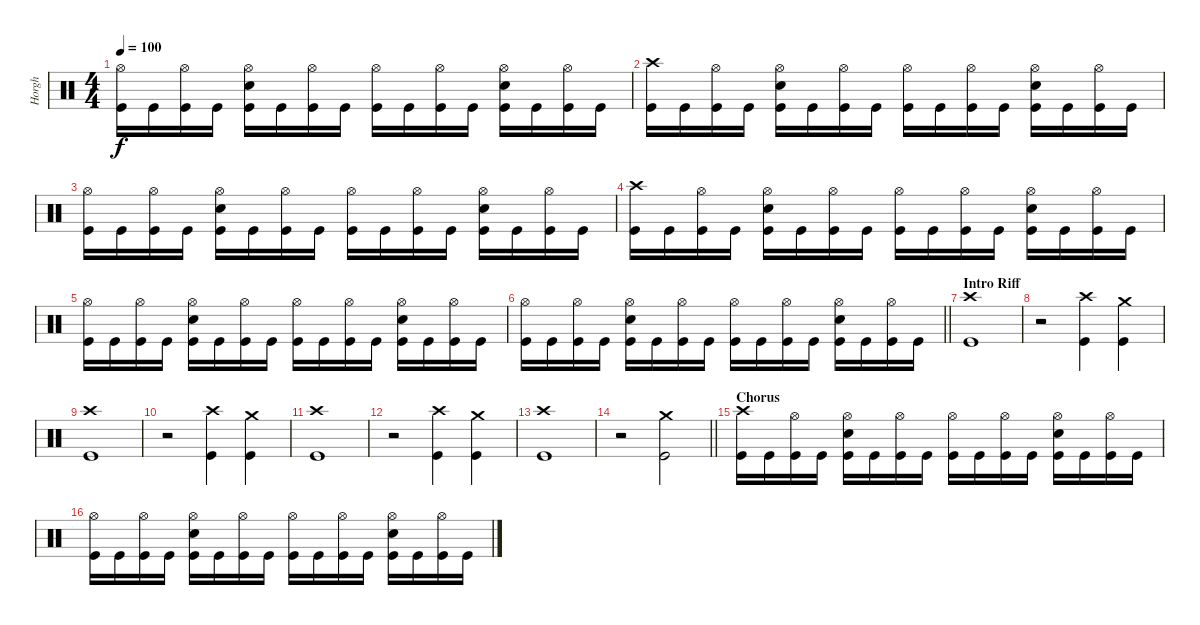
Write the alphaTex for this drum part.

\track ("Horgh" "Horgh") {instrument percussion}
\staff {score}
\articulation defaults
\ts (4 4)
\tempo 100
\clef neutral
\ks c
("Hi-Hat (open)" "Kick (hit)").16{dy f} "Kick (hit)".16 ("Hi-Hat (open)" "Kick (hit)").16 "Kick (hit)".16 ("Hi-Hat (open)" "Electric Snare (hit)" "Kick (hit)").16 "Kick (hit)".16 ("Hi-Hat (open)" "Kick (hit)").16 "Kick (hit)".16 ("Hi-Hat (open)" "Kick (hit)").16 "Kick (hit)".16 ("Hi-Hat (open)" "Kick (hit)").16 "Kick (hit)".16 ("Hi-Hat (open)" "Electric Snare (hit)" "Kick (hit)").16 "Kick (hit)".16 ("Hi-Hat (open)" "Kick (hit)").16 "Kick (hit)".16 |
("Crash high (hit)" "Kick (hit)").16 "Kick (hit)".16 ("Hi-Hat (open)" "Kick (hit)").16 "Kick (hit)".16 ("Hi-Hat (open)" "Electric Snare (hit)" "Kick (hit)").16 "Kick (hit)".16 ("Hi-Hat (open)" "Kick (hit)").16 "Kick (hit)".16 ("Hi-Hat (open)" "Kick (hit)").16 "Kick (hit)".16 ("Hi-Hat (open)" "Kick (hit)").16 "Kick (hit)".16 ("Hi-Hat (open)" "Electric Snare (hit)" "Kick (hit)").16 "Kick (hit)".16 ("Hi-Hat (open)" "Kick (hit)").16 "Kick (hit)".16 |
("Hi-Hat (open)" "Kick (hit)").16 "Kick (hit)".16 ("Hi-Hat (open)" "Kick (hit)").16 "Kick (hit)".16 ("Hi-Hat (open)" "Electric Snare (hit)" "Kick (hit)").16 "Kick (hit)".16 ("Hi-Hat (open)" "Kick (hit)").16 "Kick (hit)".16 ("Hi-Hat (open)" "Kick (hit)").16 "Kick (hit)".16 ("Hi-Hat (open)" "Kick (hit)").16 "Kick (hit)".16 ("Hi-Hat (open)" "Electric Snare (hit)" "Kick (hit)").16 "Kick (hit)".16 ("Hi-Hat (open)" "Kick (hit)").16 "Kick (hit)".16 |
("Crash high (hit)" "Kick (hit)").16 "Kick (hit)".16 ("Hi-Hat (open)" "Kick (hit)").16 "Kick (hit)".16 ("Hi-Hat (open)" "Electric Snare (hit)" "Kick (hit)").16 "Kick (hit)".16 ("Hi-Hat (open)" "Kick (hit)").16 "Kick (hit)".16 ("Hi-Hat (open)" "Kick (hit)").16 "Kick (hit)".16 ("Hi-Hat (open)" "Kick (hit)").16 "Kick (hit)".16 ("Hi-Hat (open)" "Electric Snare (hit)" "Kick (hit)").16 "Kick (hit)".16 ("Hi-Hat (open)" "Kick (hit)").16 "Kick (hit)".16 |
("Hi-Hat (open)" "Kick (hit)").16 "Kick (hit)".16 ("Hi-Hat (open)" "Kick (hit)").16 "Kick (hit)".16 ("Hi-Hat (open)" "Electric Snare (hit)" "Kick (hit)").16 "Kick (hit)".16 ("Hi-Hat (open)" "Kick (hit)").16 "Kick (hit)".16 ("Hi-Hat (open)" "Kick (hit)").16 "Kick (hit)".16 ("Hi-Hat (open)" "Kick (hit)").16 "Kick (hit)".16 ("Hi-Hat (open)" "Electric Snare (hit)" "Kick (hit)").16 "Kick (hit)".16 ("Hi-Hat (open)" "Kick (hit)").16 "Kick (hit)".16 |
\barLineRight lightlight
("Hi-Hat (open)" "Kick (hit)").16 "Kick (hit)".16 ("Hi-Hat (open)" "Kick (hit)").16 "Kick (hit)".16 ("Hi-Hat (open)" "Electric Snare (hit)" "Kick (hit)").16 "Kick (hit)".16 ("Hi-Hat (open)" "Kick (hit)").16 "Kick (hit)".16 ("Hi-Hat (open)" "Kick (hit)").16 "Kick (hit)".16 ("Hi-Hat (open)" "Kick (hit)").16 "Kick (hit)".16 ("Hi-Hat (open)" "Electric Snare (hit)" "Kick (hit)").16 "Kick (hit)".16 ("Hi-Hat (open)" "Kick (hit)").16 "Kick (hit)".16 |
\section ("" "Intro Riff")
("Crash high (hit)" "Kick (hit)").1 |
r.2 ("Crash high (hit)" "Kick (hit)").4 ("Crash medium (hit)" "Kick (hit)").4 |
("Crash high (hit)" "Kick (hit)").1 |
r.2 ("Crash high (hit)" "Kick (hit)").4 ("Crash medium (hit)" "Kick (hit)").4 |
("Crash high (hit)" "Kick (hit)").1 |
r.2 ("Crash high (hit)" "Kick (hit)").4 ("Crash medium (hit)" "Kick (hit)").4 |
("Crash high (hit)" "Kick (hit)").1 |
\barLineRight lightlight
r.2 ("Crash medium (hit)" "Kick (hit)").2 |
\section ("" "Chorus")
("Crash high (hit)" "Kick (hit)").16 "Kick (hit)".16 ("Hi-Hat (open)" "Kick (hit)").16 "Kick (hit)".16 ("Hi-Hat (open)" "Electric Snare (hit)" "Kick (hit)").16 "Kick (hit)".16 ("Hi-Hat (open)" "Kick (hit)").16 "Kick (hit)".16 ("Hi-Hat (open)" "Kick (hit)").16 "Kick (hit)".16 ("Hi-Hat (open)" "Kick (hit)").16 "Kick (hit)".16 ("Hi-Hat (open)" "Electric Snare (hit)" "Kick (hit)").16 "Kick (hit)".16 ("Hi-Hat (open)" "Kick (hit)").16 "Kick (hit)".16 |
("Hi-Hat (open)" "Kick (hit)").16 "Kick (hit)".16 ("Hi-Hat (open)" "Kick (hit)").16 "Kick (hit)".16 ("Hi-Hat (open)" "Electric Snare (hit)" "Kick (hit)").16 "Kick (hit)".16 ("Hi-Hat (open)" "Kick (hit)").16 "Kick (hit)".16 ("Hi-Hat (open)" "Kick (hit)").16 "Kick (hit)".16 ("Hi-Hat (open)" "Kick (hit)").16 "Kick (hit)".16 ("Hi-Hat (open)" "Electric Snare (hit)" "Kick (hit)").16 "Kick (hit)".16 ("Hi-Hat (open)" "Kick (hit)").16 "Kick (hit)".16
